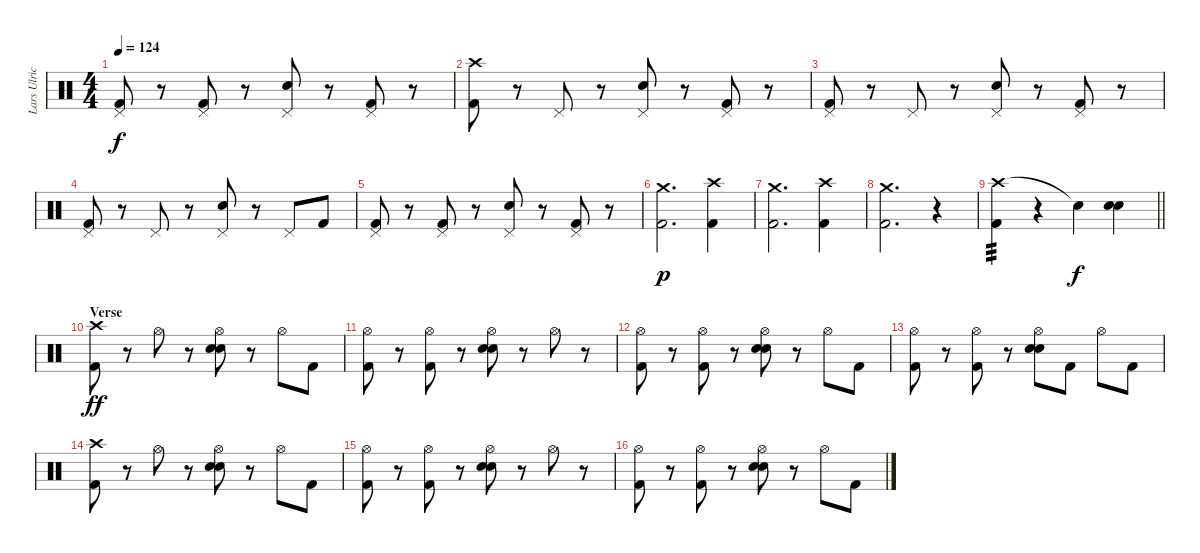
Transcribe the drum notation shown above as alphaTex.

\track ("Lars Ulrich" "Lars Ulric") {instrument percussion}
\staff {score}
\articulation defaults
\ts (4 4)
\tempo 124
\clef neutral
\ks c
("Pedal Hi-Hat (hit)" "Kick (hit) 2").8{dy f} r.8 ("Pedal Hi-Hat (hit)" "Kick (hit) 2").8 r.8 ("Pedal Hi-Hat (hit)" "Electric Snare (hit)").8 r.8 ("Pedal Hi-Hat (hit)" "Kick (hit) 2").8 r.8 |
("Crash high (hit)" "Kick (hit) 2").8 r.8 "Pedal Hi-Hat (hit)".8 r.8 ("Pedal Hi-Hat (hit)" "Electric Snare (hit)").8 r.8 ("Pedal Hi-Hat (hit)" "Kick (hit) 2").8 r.8 |
("Pedal Hi-Hat (hit)" "Kick (hit) 2").8 r.8 "Pedal Hi-Hat (hit)".8 r.8 ("Pedal Hi-Hat (hit)" "Electric Snare (hit)").8 r.8 ("Pedal Hi-Hat (hit)" "Kick (hit) 2").8 r.8 |
("Pedal Hi-Hat (hit)" "Kick (hit) 2").8 r.8 "Pedal Hi-Hat (hit)".8 r.8 ("Pedal Hi-Hat (hit)" "Electric Snare (hit)").8 r.8 "Pedal Hi-Hat (hit)".8 "Kick (hit) 2".8 |
("Pedal Hi-Hat (hit)" "Kick (hit) 2").8 r.8 ("Pedal Hi-Hat (hit)" "Kick (hit) 2").8 r.8 ("Pedal Hi-Hat (hit)" "Electric Snare (hit)").8 r.8 ("Pedal Hi-Hat (hit)" "Kick (hit) 2").8 r.8 |
("Crash medium (hit)" "Kick (hit) 2").2{d dy p} ("Crash high (hit)" "Kick (hit) 2").4 |
("Crash medium (hit)" "Kick (hit) 2").2{d} ("Crash high (hit)" "Kick (hit) 2").4 |
("Crash medium (hit)" "Kick (hit) 2").2{d} r.4 |
\barLineRight lightlight
("Crash high (hit)" "Kick (hit) 2").4{tp 3} r.4 "Snare (hit)"{t}.4{dy f} ("Electric Snare (hit)" "Electric Snare (hit)").4{bd 60} |
\section ("" "Verse")
("Crash high (hit)" "Kick (hit) 2").8{dy ff} r.8 "Hi-Hat (open)".8 r.8 ("Hi-Hat (open)" "Electric Snare (hit)" "Electric Snare (hit)").8 r.8 "Hi-Hat (open)".8 "Kick (hit) 2".8 |
("Hi-Hat (open)" "Kick (hit) 2").8 r.8 ("Hi-Hat (open)" "Kick (hit) 2").8 r.8 ("Hi-Hat (open)" "Electric Snare (hit)" "Electric Snare (hit)").8 r.8 "Hi-Hat (open)".8 r.8 |
("Hi-Hat (open)" "Kick (hit) 2").8 r.8 ("Hi-Hat (open)" "Kick (hit) 2").8 r.8 ("Hi-Hat (open)" "Electric Snare (hit)" "Electric Snare (hit)").8 r.8 "Hi-Hat (open)".8 "Kick (hit) 2".8 |
("Hi-Hat (open)" "Kick (hit) 2").8 r.8 ("Hi-Hat (open)" "Kick (hit) 2").8 r.8 ("Hi-Hat (open)" "Electric Snare (hit)" "Electric Snare (hit)").8 "Kick (hit) 2".8 "Hi-Hat (open)".8 "Kick (hit) 2".8 |
("Crash high (hit)" "Kick (hit) 2").8 r.8 "Hi-Hat (open)".8 r.8 ("Hi-Hat (open)" "Electric Snare (hit)" "Electric Snare (hit)").8 r.8 "Hi-Hat (open)".8 "Kick (hit) 2".8 |
("Hi-Hat (open)" "Kick (hit) 2").8 r.8 ("Hi-Hat (open)" "Kick (hit) 2").8 r.8 ("Hi-Hat (open)" "Electric Snare (hit)" "Electric Snare (hit)").8 r.8 "Hi-Hat (open)".8 r.8 |
("Hi-Hat (open)" "Kick (hit) 2").8 r.8 ("Hi-Hat (open)" "Kick (hit) 2").8 r.8 ("Hi-Hat (open)" "Electric Snare (hit)" "Electric Snare (hit)").8 r.8 "Hi-Hat (open)".8 "Kick (hit) 2".8
